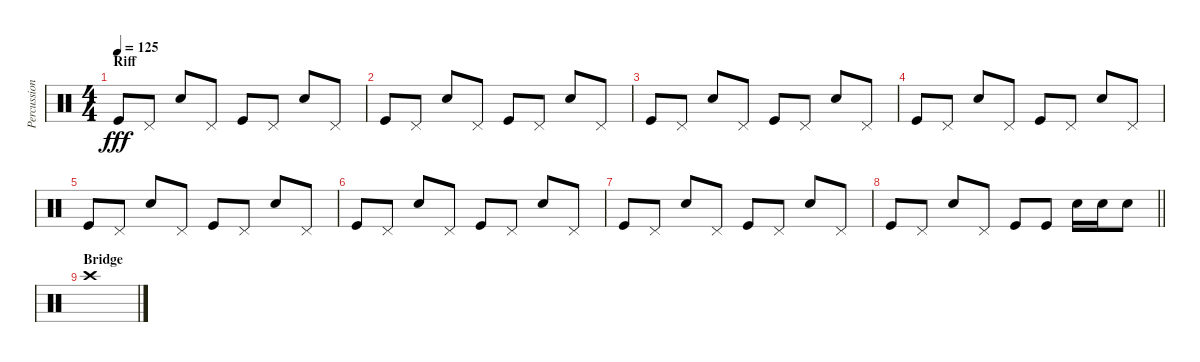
\track ("Percussion" "Percussion") {instrument percussion}
\staff {score}
\articulation defaults
\ts (4 4)
\section ("" "Riff")
\tempo 125
\clef neutral
\ks c "Kick (hit)".8{dy fff} "Pedal Hi-Hat (hit)".8 "Electric Snare (hit)".8 "Pedal Hi-Hat (hit)".8 "Kick (hit)".8 "Pedal Hi-Hat (hit)".8 "Electric Snare (hit)".8 "Pedal Hi-Hat (hit)".8
|
"Kick (hit)".8 "Pedal Hi-Hat (hit)".8 "Electric Snare (hit)".8 "Pedal Hi-Hat (hit)".8 "Kick (hit)".8 "Pedal Hi-Hat (hit)".8 "Electric Snare (hit)".8 "Pedal Hi-Hat (hit)".8 |
"Kick (hit)".8 "Pedal Hi-Hat (hit)".8 "Electric Snare (hit)".8 "Pedal Hi-Hat (hit)".8 "Kick (hit)".8 "Pedal Hi-Hat (hit)".8 "Electric Snare (hit)".8 "Pedal Hi-Hat (hit)".8 |
"Kick (hit)".8 "Pedal Hi-Hat (hit)".8 "Electric Snare (hit)".8 "Pedal Hi-Hat (hit)".8 "Kick (hit)".8 "Pedal Hi-Hat (hit)".8 "Electric Snare (hit)".8 "Pedal Hi-Hat (hit)".8 |
"Kick (hit)".8 "Pedal Hi-Hat (hit)".8 "Electric Snare (hit)".8 "Pedal Hi-Hat (hit)".8 "Kick (hit)".8 "Pedal Hi-Hat (hit)".8 "Electric Snare (hit)".8 "Pedal Hi-Hat (hit)".8 |
"Kick (hit)".8 "Pedal Hi-Hat (hit)".8 "Electric Snare (hit)".8 "Pedal Hi-Hat (hit)".8 "Kick (hit)".8 "Pedal Hi-Hat (hit)".8 "Electric Snare (hit)".8 "Pedal Hi-Hat (hit)".8 |
"Kick (hit)".8 "Pedal Hi-Hat (hit)".8 "Electric Snare (hit)".8 "Pedal Hi-Hat (hit)".8 "Kick (hit)".8 "Pedal Hi-Hat (hit)".8 "Electric Snare (hit)".8 "Pedal Hi-Hat (hit)".8 |
\barLineRight lightlight "Kick (hit)".8 "Pedal Hi-Hat (hit)".8 "Electric Snare (hit)".8 "Pedal Hi-Hat (hit)".8 "Kick (hit)".8 "Kick (hit)".8 "Electric Snare (hit)".16 "Electric Snare (hit)".16 "Electric Snare (hit)".8
|
\section ("" "Bridge")
"Crash high (hit)".1
